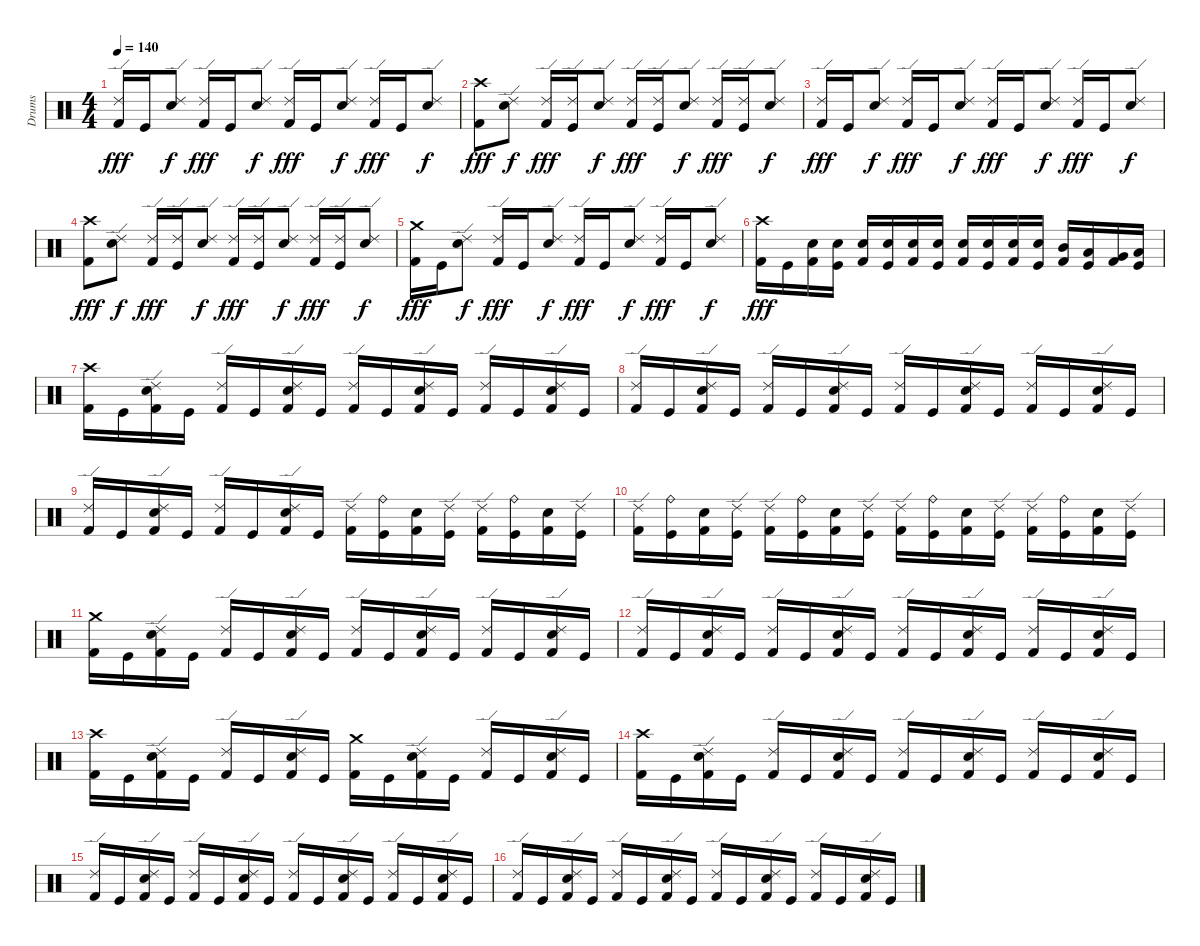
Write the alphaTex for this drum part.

\track ("Drums" "Drums") {instrument percussion}
\staff {score}
\articulation defaults
\ts (4 4)
\tempo 140
\clef neutral
\ks c
("Ride (edge) 2" "Kick (hit) 2").16{dy fff} "Kick (hit)".16 ("Ride (edge) 2" "Electric Snare (hit)").8{dy f} ("Ride (edge) 2" "Kick (hit) 2").16{dy fff} "Kick (hit)".16 ("Ride (edge) 2" "Electric Snare (hit)").8{dy f} ("Ride (edge) 2" "Kick (hit) 2").16{dy fff} "Kick (hit)".16 ("Ride (edge) 2" "Electric Snare (hit)").8{dy f} ("Ride (edge) 2" "Kick (hit) 2").16{dy fff} "Kick (hit)".16 ("Ride (edge) 2" "Electric Snare (hit)").8{dy f} |
("Crash high (hit)" "Kick (hit) 2").8{dy fff} ("Ride (edge) 2" "Electric Snare (hit)").8{dy f} ("Ride (edge) 2" "Kick (hit) 2").16{dy fff} ("Ride (edge) 2" "Kick (hit)").16 ("Ride (edge) 2" "Electric Snare (hit)").8{dy f} ("Ride (edge) 2" "Kick (hit) 2").16{dy fff} ("Ride (edge) 2" "Kick (hit)").16 ("Ride (edge) 2" "Electric Snare (hit)").8{dy f} ("Ride (edge) 2" "Kick (hit) 2").16{dy fff} ("Ride (edge) 2" "Kick (hit)").16 ("Ride (edge) 2" "Electric Snare (hit)").8{dy f} |
("Ride (edge) 2" "Kick (hit) 2").16{dy fff} "Kick (hit)".16 ("Ride (edge) 2" "Electric Snare (hit)").8{dy f} ("Ride (edge) 2" "Kick (hit) 2").16{dy fff} "Kick (hit)".16 ("Ride (edge) 2" "Electric Snare (hit)").8{dy f} ("Ride (edge) 2" "Kick (hit) 2").16{dy fff} "Kick (hit)".16 ("Ride (edge) 2" "Electric Snare (hit)").8{dy f} ("Ride (edge) 2" "Kick (hit) 2").16{dy fff} "Kick (hit)".16 ("Ride (edge) 2" "Electric Snare (hit)").8{dy f} |
("Crash high (hit)" "Kick (hit) 2").8{dy fff} ("Ride (edge) 2" "Electric Snare (hit)").8{dy f} ("Ride (edge) 2" "Kick (hit) 2").16{dy fff} ("Ride (edge) 2" "Kick (hit)").16 ("Ride (edge) 2" "Electric Snare (hit)").8{dy f} ("Ride (edge) 2" "Kick (hit) 2").16{dy fff} ("Ride (edge) 2" "Kick (hit)").16 ("Ride (edge) 2" "Electric Snare (hit)").8{dy f} ("Ride (edge) 2" "Kick (hit) 2").16{dy fff} ("Ride (edge) 2" "Kick (hit)").16 ("Ride (edge) 2" "Electric Snare (hit)").8{dy f} |
("Crash medium (hit)" "Kick (hit) 2").16{dy fff} "Kick (hit)".16 ("Ride (edge) 2" "Electric Snare (hit)").8{dy f} ("Ride (edge) 2" "Kick (hit) 2").16{dy fff} "Kick (hit)".16 ("Ride (edge) 2" "Electric Snare (hit)").8{dy f} ("Ride (edge) 2" "Kick (hit) 2").16{dy fff} "Kick (hit)".16 ("Ride (edge) 2" "Electric Snare (hit)").8{dy f} ("Ride (edge) 2" "Kick (hit) 2").16{dy fff} "Kick (hit)".16 ("Ride (edge) 2" "Electric Snare (hit)").8{dy f} |
("Crash high (hit)" "Kick (hit) 2").16{dy fff} "Kick (hit)".16 ("Electric Snare (hit)" "Kick (hit) 2").16 ("Electric Snare (hit)" "Kick (hit)").16 ("Electric Snare (hit)" "Kick (hit) 2").16 ("Electric Snare (hit)" "Kick (hit)").16 ("Electric Snare (hit)" "Kick (hit) 2").16 ("Electric Snare (hit)" "Kick (hit)").16 ("Electric Snare (hit)" "Kick (hit) 2").16 ("Electric Snare (hit)" "Kick (hit)").16 ("Electric Snare (hit)" "Kick (hit) 2").16 ("Electric Snare (hit)" "Kick (hit)").16 ("Mid Tom (hit)" "Kick (hit) 2").16 ("Low Tom (hit)" "Kick (hit)").16 ("Very Low Tom (hit)" "Kick (hit) 2").16 ("Low Floor Tom (hit)" "Kick (hit)").16 |
("Crash high (hit)" "Kick (hit) 2").16 "Kick (hit)".16 ("Ride (edge) 2" "Electric Snare (hit)" "Kick (hit) 2").16 "Kick (hit)".16 ("Ride (edge) 2" "Kick (hit) 2").16 "Kick (hit)".16 ("Ride (edge) 2" "Electric Snare (hit)" "Kick (hit) 2").16 "Kick (hit)".16 ("Ride (edge) 2" "Kick (hit) 2").16 "Kick (hit)".16 ("Ride (edge) 2" "Electric Snare (hit)" "Kick (hit) 2").16 "Kick (hit)".16 ("Ride (edge) 2" "Kick (hit) 2").16 "Kick (hit)".16 ("Ride (edge) 2" "Electric Snare (hit)" "Kick (hit) 2").16 "Kick (hit)".16 |
("Ride (edge) 2" "Kick (hit) 2").16 "Kick (hit)".16 ("Ride (edge) 2" "Electric Snare (hit)" "Kick (hit) 2").16 "Kick (hit)".16 ("Ride (edge) 2" "Kick (hit) 2").16 "Kick (hit)".16 ("Ride (edge) 2" "Electric Snare (hit)" "Kick (hit) 2").16 "Kick (hit)".16 ("Ride (edge) 2" "Kick (hit) 2").16 "Kick (hit)".16 ("Ride (edge) 2" "Electric Snare (hit)" "Kick (hit) 2").16 "Kick (hit)".16 ("Ride (edge) 2" "Kick (hit) 2").16 "Kick (hit)".16 ("Ride (edge) 2" "Electric Snare (hit)" "Kick (hit) 2").16 "Kick (hit)".16 |
("Ride (edge) 2" "Kick (hit) 2").16 "Kick (hit)".16 ("Ride (edge) 2" "Electric Snare (hit)" "Kick (hit) 2").16 "Kick (hit)".16 ("Ride (edge) 2" "Kick (hit) 2").16 "Kick (hit)".16 ("Ride (edge) 2" "Electric Snare (hit)" "Kick (hit) 2").16 "Kick (hit)".16 ("Ride (edge) 2" "Kick (hit) 2").16 ("Ride (bell)" "Kick (hit)").16 ("Electric Snare (hit)" "Kick (hit) 2").16 ("Ride (edge) 2" "Kick (hit)").16 ("Ride (edge) 2" "Kick (hit) 2").16 ("Ride (bell)" "Kick (hit)").16 ("Electric Snare (hit)" "Kick (hit) 2").16 ("Ride (edge) 2" "Kick (hit)").16 |
("Ride (edge) 2" "Kick (hit) 2").16 ("Ride (bell)" "Kick (hit)").16 ("Electric Snare (hit)" "Kick (hit) 2").16 ("Ride (edge) 2" "Kick (hit)").16 ("Ride (edge) 2" "Kick (hit) 2").16 ("Ride (bell)" "Kick (hit)").16 ("Electric Snare (hit)" "Kick (hit) 2").16 ("Ride (edge) 2" "Kick (hit)").16 ("Ride (edge) 2" "Kick (hit) 2").16 ("Ride (bell)" "Kick (hit)").16 ("Electric Snare (hit)" "Kick (hit) 2").16 ("Ride (edge) 2" "Kick (hit)").16 ("Ride (edge) 2" "Kick (hit) 2").16 ("Ride (bell)" "Kick (hit)").16 ("Electric Snare (hit)" "Kick (hit) 2").16 ("Ride (edge) 2" "Kick (hit)").16 |
("Crash medium (hit)" "Kick (hit) 2").16 "Kick (hit)".16 ("Ride (edge) 2" "Electric Snare (hit)" "Kick (hit) 2").16 "Kick (hit)".16 ("Ride (edge) 2" "Kick (hit) 2").16 "Kick (hit)".16 ("Ride (edge) 2" "Electric Snare (hit)" "Kick (hit) 2").16 "Kick (hit)".16 ("Ride (edge) 2" "Kick (hit) 2").16 "Kick (hit)".16 ("Ride (edge) 2" "Electric Snare (hit)" "Kick (hit) 2").16 "Kick (hit)".16 ("Ride (edge) 2" "Kick (hit) 2").16 "Kick (hit)".16 ("Ride (edge) 2" "Electric Snare (hit)" "Kick (hit) 2").16 "Kick (hit)".16 |
("Ride (edge) 2" "Kick (hit) 2").16 "Kick (hit)".16 ("Ride (edge) 2" "Electric Snare (hit)" "Kick (hit) 2").16 "Kick (hit)".16 ("Ride (edge) 2" "Kick (hit) 2").16 "Kick (hit)".16 ("Ride (edge) 2" "Electric Snare (hit)" "Kick (hit) 2").16 "Kick (hit)".16 ("Ride (edge) 2" "Kick (hit) 2").16 "Kick (hit)".16 ("Ride (edge) 2" "Electric Snare (hit)" "Kick (hit) 2").16 "Kick (hit)".16 ("Ride (edge) 2" "Kick (hit) 2").16 "Kick (hit)".16 ("Ride (edge) 2" "Electric Snare (hit)" "Kick (hit) 2").16 "Kick (hit)".16 |
("Crash high (hit)" "Kick (hit) 2").16 "Kick (hit)".16 ("Ride (edge) 2" "Electric Snare (hit)" "Kick (hit) 2").16 "Kick (hit)".16 ("Ride (edge) 2" "Kick (hit) 2").16 "Kick (hit)".16 ("Ride (edge) 2" "Electric Snare (hit)" "Kick (hit) 2").16 "Kick (hit)".16 ("Crash medium (hit)" "Kick (hit) 2").16 "Kick (hit)".16 ("Ride (edge) 2" "Electric Snare (hit)" "Kick (hit) 2").16 "Kick (hit)".16 ("Ride (edge) 2" "Kick (hit) 2").16 "Kick (hit)".16 ("Ride (edge) 2" "Electric Snare (hit)" "Kick (hit) 2").16 "Kick (hit)".16 |
("Crash high (hit)" "Kick (hit) 2").16 "Kick (hit)".16 ("Ride (edge) 2" "Electric Snare (hit)" "Kick (hit) 2").16 "Kick (hit)".16 ("Ride (edge) 2" "Kick (hit) 2").16 "Kick (hit)".16 ("Ride (edge) 2" "Electric Snare (hit)" "Kick (hit) 2").16 "Kick (hit)".16 ("Ride (edge) 2" "Kick (hit) 2").16 "Kick (hit)".16 ("Ride (edge) 2" "Electric Snare (hit)" "Kick (hit) 2").16 "Kick (hit)".16 ("Ride (edge) 2" "Kick (hit) 2").16 "Kick (hit)".16 ("Ride (edge) 2" "Electric Snare (hit)" "Kick (hit) 2").16 "Kick (hit)".16 |
("Ride (edge) 2" "Kick (hit) 2").16 "Kick (hit)".16 ("Ride (edge) 2" "Electric Snare (hit)" "Kick (hit) 2").16 "Kick (hit)".16 ("Ride (edge) 2" "Kick (hit) 2").16 "Kick (hit)".16 ("Ride (edge) 2" "Electric Snare (hit)" "Kick (hit) 2").16 "Kick (hit)".16 ("Ride (edge) 2" "Kick (hit) 2").16 "Kick (hit)".16 ("Ride (edge) 2" "Electric Snare (hit)" "Kick (hit) 2").16 "Kick (hit)".16 ("Ride (edge) 2" "Kick (hit) 2").16 "Kick (hit)".16 ("Ride (edge) 2" "Electric Snare (hit)" "Kick (hit) 2").16 "Kick (hit)".16 |
("Ride (edge) 2" "Kick (hit) 2").16 "Kick (hit)".16 ("Ride (edge) 2" "Electric Snare (hit)" "Kick (hit) 2").16 "Kick (hit)".16 ("Ride (edge) 2" "Kick (hit) 2").16 "Kick (hit)".16 ("Ride (edge) 2" "Electric Snare (hit)" "Kick (hit) 2").16 "Kick (hit)".16 ("Ride (edge) 2" "Kick (hit) 2").16 "Kick (hit)".16 ("Ride (edge) 2" "Electric Snare (hit)" "Kick (hit) 2").16 "Kick (hit)".16 ("Ride (edge) 2" "Kick (hit) 2").16 "Kick (hit)".16 ("Ride (edge) 2" "Electric Snare (hit)" "Kick (hit) 2").16 "Kick (hit)".16
